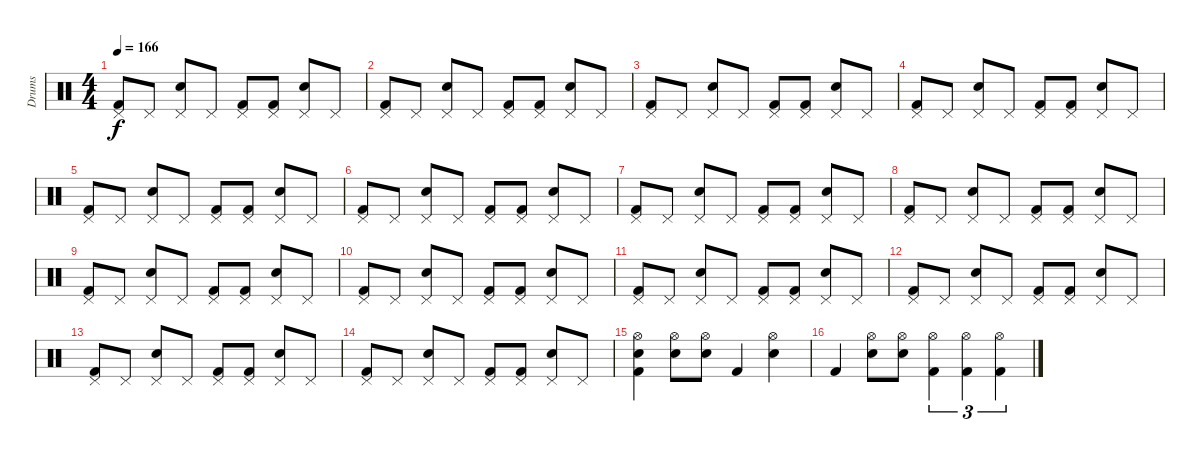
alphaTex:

\track ("Drums" "Drums") {instrument percussion}
\staff {score}
\articulation defaults
\ts (4 4)
\tempo 166
\clef neutral
\ks c
("Pedal Hi-Hat (hit)" "Kick (hit) 2").8{dy f} "Pedal Hi-Hat (hit)".8 ("Electric Snare (hit)" "Pedal Hi-Hat (hit)").8 "Pedal Hi-Hat (hit)".8 ("Pedal Hi-Hat (hit)" "Kick (hit) 2").8 ("Pedal Hi-Hat (hit)" "Kick (hit) 2").8 ("Electric Snare (hit)" "Pedal Hi-Hat (hit)").8 "Pedal Hi-Hat (hit)".8 |
("Pedal Hi-Hat (hit)" "Kick (hit) 2").8 "Pedal Hi-Hat (hit)".8 ("Electric Snare (hit)" "Pedal Hi-Hat (hit)").8 "Pedal Hi-Hat (hit)".8 ("Pedal Hi-Hat (hit)" "Kick (hit) 2").8 ("Pedal Hi-Hat (hit)" "Kick (hit) 2").8 ("Electric Snare (hit)" "Pedal Hi-Hat (hit)").8 "Pedal Hi-Hat (hit)".8 |
("Pedal Hi-Hat (hit)" "Kick (hit) 2").8 "Pedal Hi-Hat (hit)".8 ("Electric Snare (hit)" "Pedal Hi-Hat (hit)").8 "Pedal Hi-Hat (hit)".8 ("Pedal Hi-Hat (hit)" "Kick (hit) 2").8 ("Pedal Hi-Hat (hit)" "Kick (hit) 2").8 ("Electric Snare (hit)" "Pedal Hi-Hat (hit)").8 "Pedal Hi-Hat (hit)".8 |
("Pedal Hi-Hat (hit)" "Kick (hit) 2").8 "Pedal Hi-Hat (hit)".8 ("Electric Snare (hit)" "Pedal Hi-Hat (hit)").8 "Pedal Hi-Hat (hit)".8 ("Pedal Hi-Hat (hit)" "Kick (hit) 2").8 ("Pedal Hi-Hat (hit)" "Kick (hit) 2").8 ("Electric Snare (hit)" "Pedal Hi-Hat (hit)").8 "Pedal Hi-Hat (hit)".8 |
("Pedal Hi-Hat (hit)" "Kick (hit) 2").8 "Pedal Hi-Hat (hit)".8 ("Electric Snare (hit)" "Pedal Hi-Hat (hit)").8 "Pedal Hi-Hat (hit)".8 ("Pedal Hi-Hat (hit)" "Kick (hit) 2").8 ("Pedal Hi-Hat (hit)" "Kick (hit) 2").8 ("Electric Snare (hit)" "Pedal Hi-Hat (hit)").8 "Pedal Hi-Hat (hit)".8 |
("Pedal Hi-Hat (hit)" "Kick (hit) 2").8 "Pedal Hi-Hat (hit)".8 ("Electric Snare (hit)" "Pedal Hi-Hat (hit)").8 "Pedal Hi-Hat (hit)".8 ("Pedal Hi-Hat (hit)" "Kick (hit) 2").8 ("Pedal Hi-Hat (hit)" "Kick (hit) 2").8 ("Electric Snare (hit)" "Pedal Hi-Hat (hit)").8 "Pedal Hi-Hat (hit)".8 |
("Pedal Hi-Hat (hit)" "Kick (hit) 2").8 "Pedal Hi-Hat (hit)".8 ("Electric Snare (hit)" "Pedal Hi-Hat (hit)").8 "Pedal Hi-Hat (hit)".8 ("Pedal Hi-Hat (hit)" "Kick (hit) 2").8 ("Pedal Hi-Hat (hit)" "Kick (hit) 2").8 ("Electric Snare (hit)" "Pedal Hi-Hat (hit)").8 "Pedal Hi-Hat (hit)".8 |
("Pedal Hi-Hat (hit)" "Kick (hit) 2").8 "Pedal Hi-Hat (hit)".8 ("Electric Snare (hit)" "Pedal Hi-Hat (hit)").8 "Pedal Hi-Hat (hit)".8 ("Pedal Hi-Hat (hit)" "Kick (hit) 2").8 ("Pedal Hi-Hat (hit)" "Kick (hit) 2").8 ("Electric Snare (hit)" "Pedal Hi-Hat (hit)").8 "Pedal Hi-Hat (hit)".8 |
("Pedal Hi-Hat (hit)" "Kick (hit) 2").8 "Pedal Hi-Hat (hit)".8 ("Electric Snare (hit)" "Pedal Hi-Hat (hit)").8 "Pedal Hi-Hat (hit)".8 ("Pedal Hi-Hat (hit)" "Kick (hit) 2").8 ("Pedal Hi-Hat (hit)" "Kick (hit) 2").8 ("Electric Snare (hit)" "Pedal Hi-Hat (hit)").8 "Pedal Hi-Hat (hit)".8 |
("Pedal Hi-Hat (hit)" "Kick (hit) 2").8 "Pedal Hi-Hat (hit)".8 ("Electric Snare (hit)" "Pedal Hi-Hat (hit)").8 "Pedal Hi-Hat (hit)".8 ("Pedal Hi-Hat (hit)" "Kick (hit) 2").8 ("Pedal Hi-Hat (hit)" "Kick (hit) 2").8 ("Electric Snare (hit)" "Pedal Hi-Hat (hit)").8 "Pedal Hi-Hat (hit)".8 |
("Pedal Hi-Hat (hit)" "Kick (hit) 2").8 "Pedal Hi-Hat (hit)".8 ("Electric Snare (hit)" "Pedal Hi-Hat (hit)").8 "Pedal Hi-Hat (hit)".8 ("Pedal Hi-Hat (hit)" "Kick (hit) 2").8 ("Pedal Hi-Hat (hit)" "Kick (hit) 2").8 ("Electric Snare (hit)" "Pedal Hi-Hat (hit)").8 "Pedal Hi-Hat (hit)".8 |
("Pedal Hi-Hat (hit)" "Kick (hit) 2").8 "Pedal Hi-Hat (hit)".8 ("Electric Snare (hit)" "Pedal Hi-Hat (hit)").8 "Pedal Hi-Hat (hit)".8 ("Pedal Hi-Hat (hit)" "Kick (hit) 2").8 ("Pedal Hi-Hat (hit)" "Kick (hit) 2").8 ("Electric Snare (hit)" "Pedal Hi-Hat (hit)").8 "Pedal Hi-Hat (hit)".8 |
("Pedal Hi-Hat (hit)" "Kick (hit) 2").8 "Pedal Hi-Hat (hit)".8 ("Electric Snare (hit)" "Pedal Hi-Hat (hit)").8 "Pedal Hi-Hat (hit)".8 ("Pedal Hi-Hat (hit)" "Kick (hit) 2").8 ("Pedal Hi-Hat (hit)" "Kick (hit) 2").8 ("Electric Snare (hit)" "Pedal Hi-Hat (hit)").8 "Pedal Hi-Hat (hit)".8 |
("Pedal Hi-Hat (hit)" "Kick (hit) 2").8 "Pedal Hi-Hat (hit)".8 ("Electric Snare (hit)" "Pedal Hi-Hat (hit)").8 "Pedal Hi-Hat (hit)".8 ("Pedal Hi-Hat (hit)" "Kick (hit) 2").8 ("Pedal Hi-Hat (hit)" "Kick (hit) 2").8 ("Electric Snare (hit)" "Pedal Hi-Hat (hit)").8 "Pedal Hi-Hat (hit)".8 |
("Electric Snare (hit)" "Hi-Hat (open)" "Kick (hit) 2").4 ("Electric Snare (hit)" "Hi-Hat (open)").8 ("Electric Snare (hit)" "Hi-Hat (open)").8 "Kick (hit) 2".4 ("Electric Snare (hit)" "Hi-Hat (open)").4 |
"Kick (hit) 2".4 ("Electric Snare (hit)" "Hi-Hat (open)").8 ("Electric Snare (hit)" "Hi-Hat (open)").8 ("Hi-Hat (open)" "Kick (hit) 2").4{tu (3 2)} ("Hi-Hat (open)" "Kick (hit) 2").4{tu (3 2)} ("Hi-Hat (open)" "Kick (hit) 2").4{tu (3 2)}
